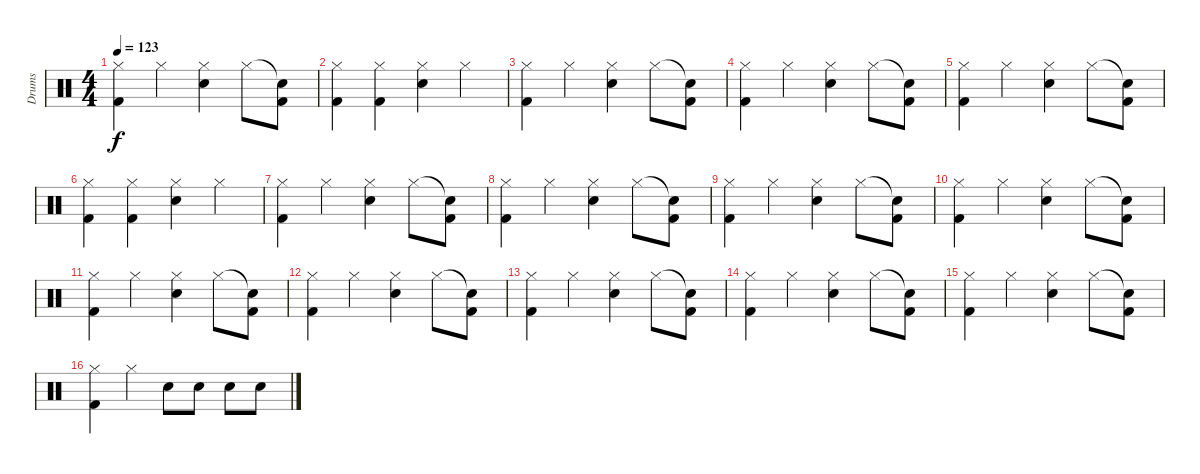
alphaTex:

\track ("Drums" "Drums") {instrument percussion}
\staff {score}
\articulation defaults
\ts (4 4)
\tempo 123
\clef neutral
\ks c
("Hi-Hat (closed)" "Kick (hit) 2").4{dy f} "Hi-Hat (closed)".4 ("Hi-Hat (closed)" "Electric Snare (hit)").4 "Hi-Hat (closed)".8 ("Snare (hit)"{t} "Kick (hit) 2").8 |
("Hi-Hat (closed)" "Kick (hit) 2").4 ("Hi-Hat (closed)" "Kick (hit) 2").4 ("Hi-Hat (closed)" "Electric Snare (hit)").4 "Hi-Hat (closed)".4 |
("Hi-Hat (closed)" "Kick (hit) 2").4 "Hi-Hat (closed)".4 ("Hi-Hat (closed)" "Electric Snare (hit)").4 "Hi-Hat (closed)".8 ("Snare (hit)"{t} "Kick (hit) 2").8 |
("Hi-Hat (closed)" "Kick (hit) 2").4 "Hi-Hat (closed)".4 ("Hi-Hat (closed)" "Electric Snare (hit)").4 "Hi-Hat (closed)".8 ("Snare (hit)"{t} "Kick (hit) 2").8 |
("Hi-Hat (closed)" "Kick (hit) 2").4 "Hi-Hat (closed)".4 ("Hi-Hat (closed)" "Electric Snare (hit)").4 "Hi-Hat (closed)".8 ("Snare (hit)"{t} "Kick (hit) 2").8 |
("Hi-Hat (closed)" "Kick (hit) 2").4 ("Hi-Hat (closed)" "Kick (hit) 2").4 ("Hi-Hat (closed)" "Electric Snare (hit)").4 "Hi-Hat (closed)".4 |
("Hi-Hat (closed)" "Kick (hit) 2").4 "Hi-Hat (closed)".4 ("Hi-Hat (closed)" "Electric Snare (hit)").4 "Hi-Hat (closed)".8 ("Snare (hit)"{t} "Kick (hit) 2").8 |
("Hi-Hat (closed)" "Kick (hit) 2").4 "Hi-Hat (closed)".4 ("Hi-Hat (closed)" "Electric Snare (hit)").4 "Hi-Hat (closed)".8 ("Snare (hit)"{t} "Kick (hit) 2").8 |
("Hi-Hat (closed)" "Kick (hit) 2").4 "Hi-Hat (closed)".4 ("Hi-Hat (closed)" "Electric Snare (hit)").4 "Hi-Hat (closed)".8 ("Snare (hit)"{t} "Kick (hit) 2").8 |
("Hi-Hat (closed)" "Kick (hit) 2").4 "Hi-Hat (closed)".4 ("Hi-Hat (closed)" "Electric Snare (hit)").4 "Hi-Hat (closed)".8 ("Snare (hit)"{t} "Kick (hit) 2").8 |
("Hi-Hat (closed)" "Kick (hit) 2").4 "Hi-Hat (closed)".4 ("Hi-Hat (closed)" "Electric Snare (hit)").4 "Hi-Hat (closed)".8 ("Snare (hit)"{t} "Kick (hit) 2").8 |
("Hi-Hat (closed)" "Kick (hit) 2").4 "Hi-Hat (closed)".4 ("Hi-Hat (closed)" "Electric Snare (hit)").4 "Hi-Hat (closed)".8 ("Snare (hit)"{t} "Kick (hit) 2").8 |
("Hi-Hat (closed)" "Kick (hit) 2").4 "Hi-Hat (closed)".4 ("Hi-Hat (closed)" "Electric Snare (hit)").4 "Hi-Hat (closed)".8 ("Snare (hit)"{t} "Kick (hit) 2").8 |
("Hi-Hat (closed)" "Kick (hit) 2").4 "Hi-Hat (closed)".4 ("Hi-Hat (closed)" "Electric Snare (hit)").4 "Hi-Hat (closed)".8 ("Snare (hit)"{t} "Kick (hit) 2").8 |
("Hi-Hat (closed)" "Kick (hit) 2").4 "Hi-Hat (closed)".4 ("Hi-Hat (closed)" "Electric Snare (hit)").4 "Hi-Hat (closed)".8 ("Snare (hit)"{t} "Kick (hit) 2").8 |
("Hi-Hat (closed)" "Kick (hit) 2").4 "Hi-Hat (closed)".4 "Electric Snare (hit)".8 "Electric Snare (hit)".8 "Electric Snare (hit)".8 "Electric Snare (hit)".8
